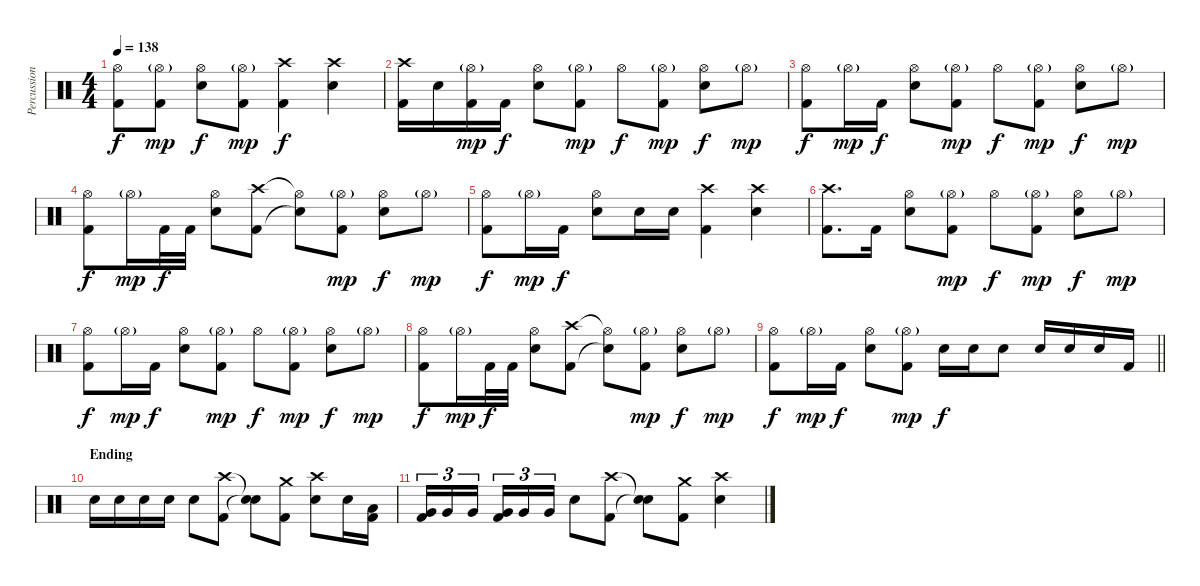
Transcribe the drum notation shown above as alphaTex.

\track ("Percussion" "Percussion") {instrument percussion}
\staff {score}
\articulation defaults
\ts (4 4)
\tempo 138
\clef neutral
\ks c
("Hi-Hat (open)" "Kick (hit) 2").8{dy f} ("Hi-Hat (open)"{g} "Kick (hit) 2").8{dy mp} ("Hi-Hat (open)" "Snare (hit) 2").8{dy f} ("Hi-Hat (open)"{g} "Kick (hit) 2").8{dy mp} ("Crash high (hit)" "Kick (hit) 2").4{dy f} ("Crash high (hit)" "Snare (hit) 2").4 |
("Crash high (hit)" "Kick (hit) 2").16 "Snare (hit) 2".16 ("Hi-Hat (open)"{g} "Kick (hit) 2").16{dy mp} "Kick (hit) 2".16{dy f} ("Hi-Hat (open)" "Snare (hit) 2").8 ("Hi-Hat (open)"{g} "Kick (hit) 2").8{dy mp} "Hi-Hat (open)".8{dy f} ("Hi-Hat (open)"{g} "Kick (hit) 2").8{dy mp} ("Hi-Hat (open)" "Snare (hit) 2").8{dy f} "Hi-Hat (open)"{g}.8{dy mp} |
("Hi-Hat (open)" "Kick (hit) 2").8{dy f} "Hi-Hat (open)"{g}.16{dy mp} "Kick (hit) 2".16{dy f} ("Hi-Hat (open)" "Snare (hit) 2").8 ("Hi-Hat (open)"{g} "Kick (hit) 2").8{dy mp} "Hi-Hat (open)".8{dy f} ("Hi-Hat (open)"{g} "Kick (hit) 2").8{dy mp} ("Hi-Hat (open)" "Snare (hit) 2").8{dy f} "Hi-Hat (open)"{g}.8{dy mp} |
("Hi-Hat (open)" "Kick (hit) 2").8{dy f} "Hi-Hat (open)"{g}.16{dy mp} "Kick (hit) 2".32{dy f} "Kick (hit) 2".32 ("Hi-Hat (open)" "Snare (hit) 2").8 ("Crash high (hit)" "Kick (hit) 2").8 ("Hi-Hat (open)"{t} "Snare (hit)"{t}).8 ("Hi-Hat (open)"{g} "Kick (hit) 2").8{dy mp} ("Hi-Hat (open)" "Snare (hit) 2").8{dy f} "Hi-Hat (open)"{g}.8{dy mp} |
("Hi-Hat (open)" "Kick (hit) 2").8{dy f} "Hi-Hat (open)"{g}.16{dy mp} "Kick (hit) 2".16{dy f} ("Hi-Hat (open)" "Snare (hit) 2").8 "Snare (hit) 2".16 "Snare (hit) 2".16 ("Crash high (hit)" "Kick (hit) 2").4 ("Crash high (hit)" "Snare (hit) 2").4 |
("Crash high (hit)" "Kick (hit) 2").8{d} "Kick (hit) 2".16 ("Hi-Hat (open)" "Snare (hit) 2").8 ("Hi-Hat (open)"{g} "Kick (hit) 2").8{dy mp} "Hi-Hat (open)".8{dy f} ("Hi-Hat (open)"{g} "Kick (hit) 2").8{dy mp} ("Hi-Hat (open)" "Snare (hit) 2").8{dy f} "Hi-Hat (open)"{g}.8{dy mp} |
("Hi-Hat (open)" "Kick (hit) 2").8{dy f} "Hi-Hat (open)"{g}.16{dy mp} "Kick (hit) 2".16{dy f} ("Hi-Hat (open)" "Snare (hit) 2").8 ("Hi-Hat (open)"{g} "Kick (hit) 2").8{dy mp} "Hi-Hat (open)".8{dy f} ("Hi-Hat (open)"{g} "Kick (hit) 2").8{dy mp} ("Hi-Hat (open)" "Snare (hit) 2").8{dy f} "Hi-Hat (open)"{g}.8{dy mp} |
("Hi-Hat (open)" "Kick (hit) 2").8{dy f} "Hi-Hat (open)"{g}.16{dy mp} "Kick (hit) 2".32{dy f} "Kick (hit) 2".32 ("Hi-Hat (open)" "Snare (hit) 2").8 ("Crash high (hit)" "Kick (hit) 2").8 ("Hi-Hat (open)"{t} "Snare (hit)"{t}).8 ("Hi-Hat (open)"{g} "Kick (hit) 2").8{dy mp} ("Hi-Hat (open)" "Snare (hit) 2").8{dy f} "Hi-Hat (open)"{g}.8{dy mp} |
\barLineRight lightlight
("Hi-Hat (open)" "Kick (hit) 2").8{dy f} "Hi-Hat (open)"{g}.16{dy mp} "Kick (hit) 2".16{dy f} ("Hi-Hat (open)" "Snare (hit) 2").8 ("Hi-Hat (open)"{g} "Kick (hit) 2").8{dy mp} "Snare (hit) 2".16{dy f} "Snare (hit) 2".16 "Snare (hit) 2".8 "Snare (hit) 2".16 "Snare (hit) 2".16 "Snare (hit) 2".16 "Kick (hit) 2".16 |
\section ("" "Ending")
"Snare (hit) 2".16 "Snare (hit) 2".16 "Snare (hit) 2".16 "Snare (hit) 2".16 "Snare (hit) 2".8 ("Crash high (hit)" "Kick (hit) 2").8 ("Snare (hit)"{t} "Snare (hit)"{t}).8 ("Crash medium (hit)" "Kick (hit) 2").8 ("Crash high (hit)" "Snare (hit) 2").8 "Snare (hit) 2".16 ("Low Tom (hit)" "Kick (hit) 2").16 |
("Very Low Tom (hit)" "Kick (hit) 2").16{tu (3 2)} "Very Low Tom (hit)".16{tu (3 2)} "Very Low Tom (hit)".16{tu (3 2)} ("Very Low Tom (hit)" "Kick (hit) 2").16{tu (3 2)} "Very Low Tom (hit)".16{tu (3 2)} "Very Low Tom (hit)".16{tu (3 2)} "Snare (hit) 2".8 ("Crash high (hit)" "Kick (hit) 2").8 ("Snare (hit)"{t} "Snare (hit)"{t}).8 ("Crash medium (hit)" "Kick (hit) 2").8 ("Crash high (hit)" "Snare (hit) 2").4
